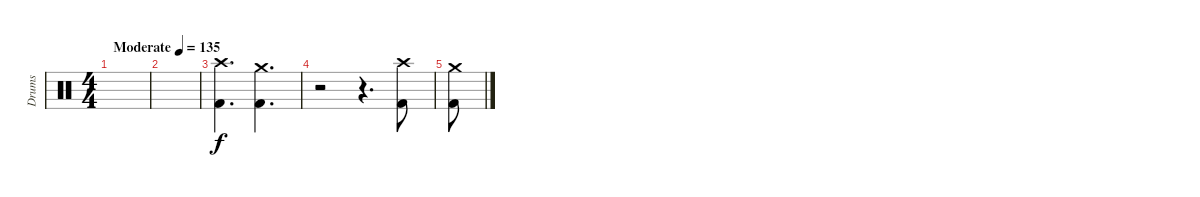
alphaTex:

\track ("Drums" "Drums") {solo instrument percussion bank 34}
\staff {score}
\articulation defaults
\ts (4 4)
\tempo (135 "Moderate")
\clef neutral
\ks c
|
|
("Crash high (hit)" "Kick (hit) 2").4{d} ("Crash medium (hit)" "Kick (hit) 2").4{d} |
r.2 r.4{d} ("Crash high (hit)" "Kick (hit) 2").8 |
("Crash medium (hit)" "Kick (hit) 2").8
